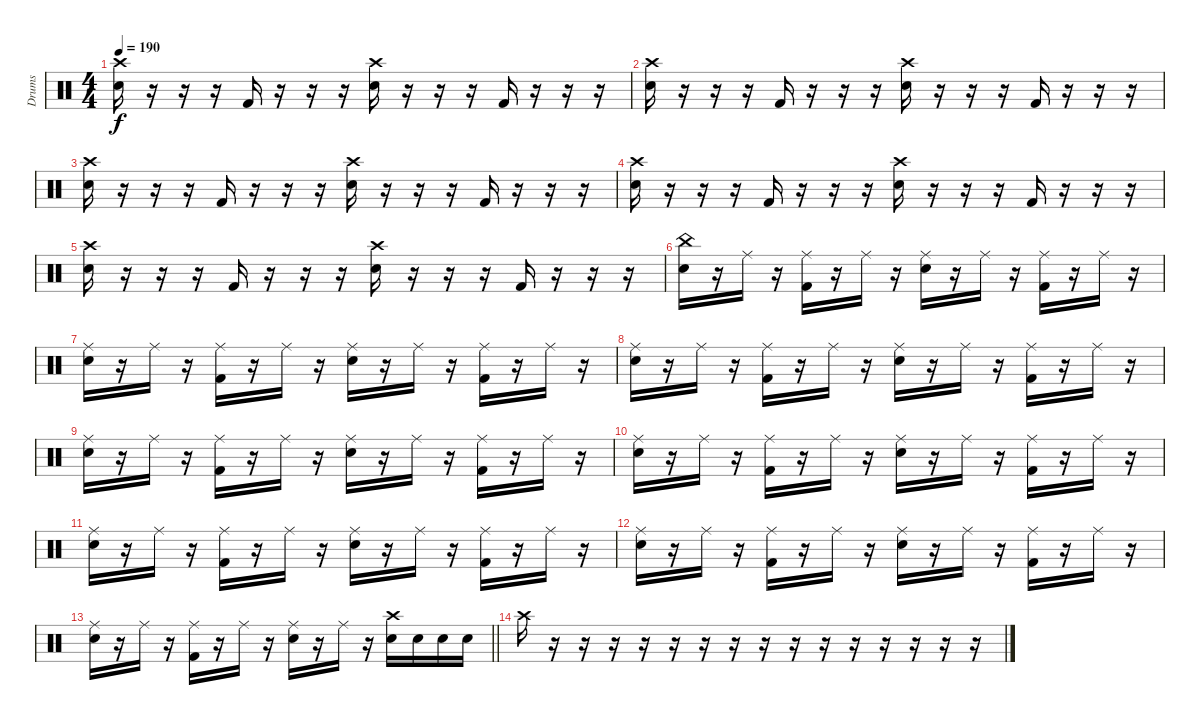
\track ("Drums" "Drums") {instrument percussion}
\staff {score}
\articulation defaults
\ts (4 4)
\tempo 190
\clef neutral
\ks c
("Crash high (hit)" "Electric Snare (hit)").16{dy f} r.16 r.16 r.16 "Kick (hit) 2".16 r.16 r.16 r.16 ("Crash high (hit)" "Electric Snare (hit)").16 r.16 r.16 r.16 "Kick (hit) 2".16 r.16 r.16 r.16 |
("Crash high (hit)" "Electric Snare (hit)").16 r.16 r.16 r.16 "Kick (hit) 2".16 r.16 r.16 r.16 ("Crash high (hit)" "Electric Snare (hit)").16 r.16 r.16 r.16 "Kick (hit) 2".16 r.16 r.16 r.16 |
("Crash high (hit)" "Electric Snare (hit)").16 r.16 r.16 r.16 "Kick (hit) 2".16 r.16 r.16 r.16 ("Crash high (hit)" "Electric Snare (hit)").16 r.16 r.16 r.16 "Kick (hit) 2".16 r.16 r.16 r.16 |
("Crash high (hit)" "Electric Snare (hit)").16 r.16 r.16 r.16 "Kick (hit) 2".16 r.16 r.16 r.16 ("Crash high (hit)" "Electric Snare (hit)").16 r.16 r.16 r.16 "Kick (hit) 2".16 r.16 r.16 r.16 |
("Crash high (hit)" "Electric Snare (hit)").16 r.16 r.16 r.16 "Kick (hit) 2".16 r.16 r.16 r.16 ("Crash high (hit)" "Electric Snare (hit)").16 r.16 r.16 r.16 "Kick (hit) 2".16 r.16 r.16 r.16 |
("China (hit)" "Electric Snare (hit)").16 r.16 "Ride (middle)".16 r.16 ("Ride (middle)" "Kick (hit) 2").16 r.16 "Ride (middle)".16 r.16 ("Ride (middle)" "Electric Snare (hit)").16 r.16 "Ride (middle)".16 r.16 ("Ride (middle)" "Kick (hit) 2").16 r.16 "Ride (middle)".16 r.16 |
("Ride (middle)" "Electric Snare (hit)").16 r.16 "Ride (middle)".16 r.16 ("Ride (middle)" "Kick (hit) 2").16 r.16 "Ride (middle)".16 r.16 ("Ride (middle)" "Electric Snare (hit)").16 r.16 "Ride (middle)".16 r.16 ("Ride (middle)" "Kick (hit) 2").16 r.16 "Ride (middle)".16 r.16 |
("Ride (middle)" "Electric Snare (hit)").16 r.16 "Ride (middle)".16 r.16 ("Ride (middle)" "Kick (hit) 2").16 r.16 "Ride (middle)".16 r.16 ("Ride (middle)" "Electric Snare (hit)").16 r.16 "Ride (middle)".16 r.16 ("Ride (middle)" "Kick (hit) 2").16 r.16 "Ride (middle)".16 r.16 |
("Ride (middle)" "Electric Snare (hit)").16 r.16 "Ride (middle)".16 r.16 ("Ride (middle)" "Kick (hit) 2").16 r.16 "Ride (middle)".16 r.16 ("Ride (middle)" "Electric Snare (hit)").16 r.16 "Ride (middle)".16 r.16 ("Ride (middle)" "Kick (hit) 2").16 r.16 "Ride (middle)".16 r.16 |
("Ride (middle)" "Electric Snare (hit)").16 r.16 "Ride (middle)".16 r.16 ("Ride (middle)" "Kick (hit) 2").16 r.16 "Ride (middle)".16 r.16 ("Ride (middle)" "Electric Snare (hit)").16 r.16 "Ride (middle)".16 r.16 ("Ride (middle)" "Kick (hit) 2").16 r.16 "Ride (middle)".16 r.16 |
("Ride (middle)" "Electric Snare (hit)").16 r.16 "Ride (middle)".16 r.16 ("Ride (middle)" "Kick (hit) 2").16 r.16 "Ride (middle)".16 r.16 ("Ride (middle)" "Electric Snare (hit)").16 r.16 "Ride (middle)".16 r.16 ("Ride (middle)" "Kick (hit) 2").16 r.16 "Ride (middle)".16 r.16 |
("Ride (middle)" "Electric Snare (hit)").16 r.16 "Ride (middle)".16 r.16 ("Ride (middle)" "Kick (hit) 2").16 r.16 "Ride (middle)".16 r.16 ("Ride (middle)" "Electric Snare (hit)").16 r.16 "Ride (middle)".16 r.16 ("Ride (middle)" "Kick (hit) 2").16 r.16 "Ride (middle)".16 r.16 |
\barLineRight lightlight
("Ride (middle)" "Electric Snare (hit)").16 r.16 "Ride (middle)".16 r.16 ("Ride (middle)" "Kick (hit) 2").16 r.16 "Ride (middle)".16 r.16 ("Ride (middle)" "Electric Snare (hit)").16 r.16 "Ride (middle)".16 r.16 ("Crash high (hit)" "Electric Snare (hit)").16 "Electric Snare (hit)".16 "Electric Snare (hit)".16 "Electric Snare (hit)".16 |
"Crash high (hit)".16 r.16 r.16 r.16 r.16 r.16 r.16 r.16 r.16 r.16 r.16 r.16 r.16 r.16 r.16 r.16
